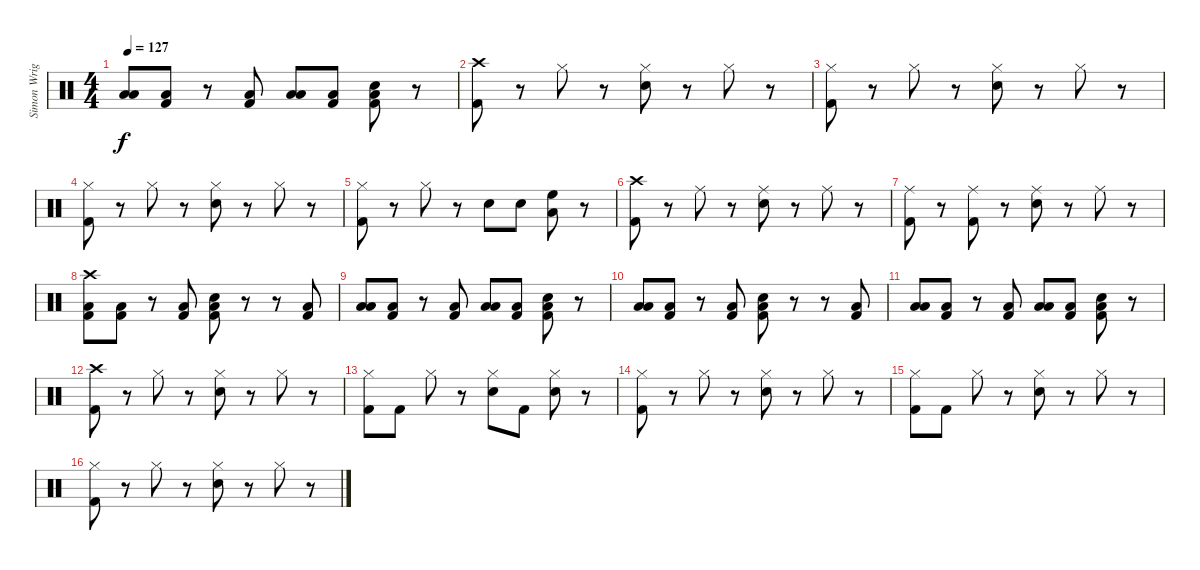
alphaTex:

\track ("Simon Wright" "Simon Wrig") {instrument percussion}
\staff {score}
\articulation defaults
\ts (4 4)
\tempo 127
\clef neutral
\ks c
("Low Tom (hit)" "Low Floor Tom (hit)").8{bu 240 dy f} ("Low Floor Tom (hit)" "Kick (hit) 2").8 r.8 ("Low Floor Tom (hit)" "Kick (hit) 2").8 ("Low Tom (hit)" "Low Floor Tom (hit)").8{bu 240} ("Low Floor Tom (hit)" "Kick (hit) 2").8 ("Low Tom (hit)" "Snare (hit) 2" "Kick (hit) 2").8 r.8 |
("Crash high (hit)" "Kick (hit) 2").8 r.8 "Hi-Hat (closed)".8 r.8 ("Hi-Hat (closed)" "Snare (hit) 2").8 r.8 "Hi-Hat (closed)".8 r.8 |
("Hi-Hat (closed)" "Kick (hit) 2").8 r.8 "Hi-Hat (closed)".8 r.8 ("Hi-Hat (closed)" "Snare (hit) 2").8 r.8 "Hi-Hat (closed)".8 r.8 |
("Hi-Hat (closed)" "Kick (hit) 2").8 r.8 "Hi-Hat (closed)".8 r.8 ("Hi-Hat (closed)" "Snare (hit) 2").8 r.8 "Hi-Hat (closed)".8 r.8 |
("Hi-Hat (closed)" "Kick (hit) 2").8 r.8 "Hi-Hat (closed)".8 r.8 "Snare (hit) 2".8 "Snare (hit) 2".8 ("High Floor Tom (hit)" "Low Floor Tom (hit)").8 r.8 |
("Crash high (hit)" "Kick (hit) 2").8 r.8 "Ride (middle)".8 r.8 ("Ride (middle)" "Snare (hit) 2").8 r.8 "Ride (middle)".8 r.8 |
("Ride (middle)" "Kick (hit) 2").8 r.8 ("Ride (middle)" "Kick (hit) 2").8 r.8 ("Ride (middle)" "Snare (hit) 2").8 r.8 "Ride (middle)".8 r.8 |
("Crash high (hit)" "Low Floor Tom (hit)" "Kick (hit) 2").8 ("Low Floor Tom (hit)" "Kick (hit) 2").8 r.8 ("Low Floor Tom (hit)" "Kick (hit) 2").8 ("Low Tom (hit)" "Snare (hit) 2" "Kick (hit) 2").8 r.8 r.8 ("Low Floor Tom (hit)" "Kick (hit) 2").8 |
("Low Tom (hit)" "Low Floor Tom (hit)").8{bu 240} ("Low Floor Tom (hit)" "Kick (hit) 2").8 r.8 ("Low Floor Tom (hit)" "Kick (hit) 2").8 ("Low Tom (hit)" "Low Floor Tom (hit)").8{bu 240} ("Low Floor Tom (hit)" "Kick (hit) 2").8 ("Low Tom (hit)" "Snare (hit) 2" "Kick (hit) 2").8 r.8 |
("Low Tom (hit)" "Low Floor Tom (hit)").8{bu 240} ("Low Floor Tom (hit)" "Kick (hit) 2").8 r.8 ("Low Floor Tom (hit)" "Kick (hit) 2").8 ("Low Tom (hit)" "Snare (hit) 2" "Kick (hit) 2").8 r.8 r.8 ("Low Floor Tom (hit)" "Kick (hit) 2").8 |
("Low Tom (hit)" "Low Floor Tom (hit)").8{bu 240} ("Low Floor Tom (hit)" "Kick (hit) 2").8 r.8 ("Low Floor Tom (hit)" "Kick (hit) 2").8 ("Low Tom (hit)" "Low Floor Tom (hit)").8{bu 240} ("Low Floor Tom (hit)" "Kick (hit) 2").8 ("Low Tom (hit)" "Snare (hit) 2" "Kick (hit) 2").8 r.8 |
("Crash high (hit)" "Kick (hit) 2").8 r.8 "Hi-Hat (closed)".8 r.8 ("Hi-Hat (closed)" "Snare (hit) 2").8 r.8 "Hi-Hat (closed)".8 r.8 |
("Hi-Hat (closed)" "Kick (hit) 2").8 "Kick (hit) 2".8 "Hi-Hat (closed)".8 r.8 ("Hi-Hat (closed)" "Snare (hit) 2").8 "Kick (hit) 2".8 ("Hi-Hat (closed)" "Snare (hit) 2").8 r.8 |
("Hi-Hat (closed)" "Kick (hit) 2").8 r.8 "Hi-Hat (closed)".8 r.8 ("Hi-Hat (closed)" "Snare (hit) 2").8 r.8 "Hi-Hat (closed)".8 r.8 |
("Hi-Hat (closed)" "Kick (hit) 2").8 "Kick (hit) 2".8 "Hi-Hat (closed)".8 r.8 ("Hi-Hat (closed)" "Snare (hit) 2").8 r.8 "Hi-Hat (closed)".8 r.8 |
("Hi-Hat (closed)" "Kick (hit) 2").8 r.8 "Hi-Hat (closed)".8 r.8 ("Hi-Hat (closed)" "Snare (hit) 2").8 r.8 "Hi-Hat (closed)".8 r.8
